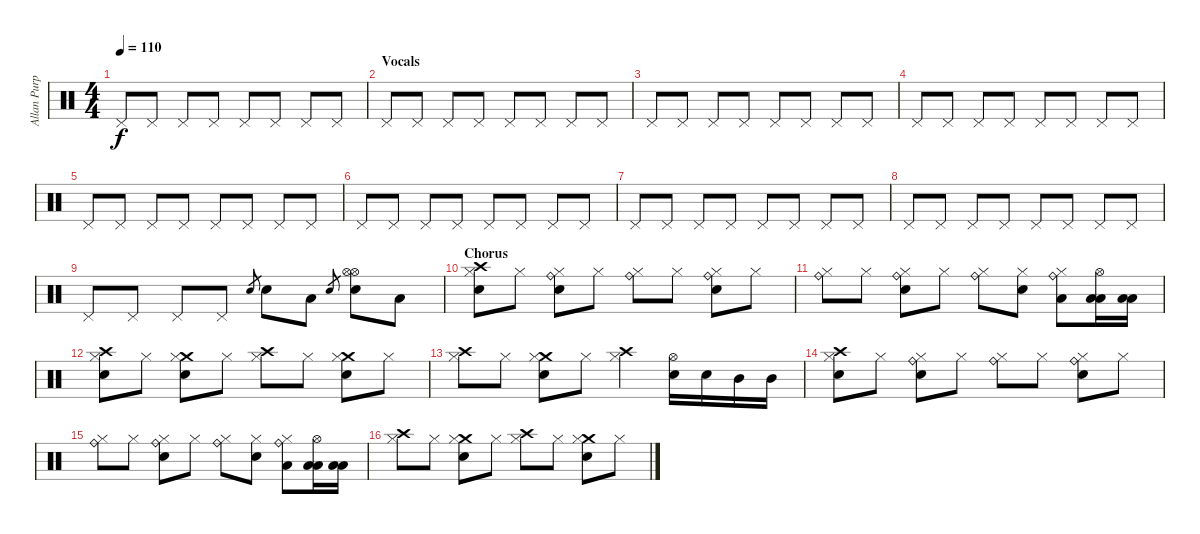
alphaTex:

\track ("Allan Purple" "Allan Purp") {instrument percussion}
\staff {score}
\articulation defaults
\ts (4 4)
\tempo 110
\clef neutral
\ks c "Pedal Hi-Hat (hit)".8{dy f} "Pedal Hi-Hat (hit)".8 "Pedal Hi-Hat (hit)".8 "Pedal Hi-Hat (hit)".8 "Pedal Hi-Hat (hit)".8 "Pedal Hi-Hat (hit)".8 "Pedal Hi-Hat (hit)".8 "Pedal Hi-Hat (hit)".8
|
\section ("" "Vocals")
"Pedal Hi-Hat (hit)".8 "Pedal Hi-Hat (hit)".8 "Pedal Hi-Hat (hit)".8 "Pedal Hi-Hat (hit)".8 "Pedal Hi-Hat (hit)".8 "Pedal Hi-Hat (hit)".8 "Pedal Hi-Hat (hit)".8 "Pedal Hi-Hat (hit)".8 |
"Pedal Hi-Hat (hit)".8 "Pedal Hi-Hat (hit)".8 "Pedal Hi-Hat (hit)".8 "Pedal Hi-Hat (hit)".8 "Pedal Hi-Hat (hit)".8 "Pedal Hi-Hat (hit)".8 "Pedal Hi-Hat (hit)".8 "Pedal Hi-Hat (hit)".8 |
"Pedal Hi-Hat (hit)".8 "Pedal Hi-Hat (hit)".8 "Pedal Hi-Hat (hit)".8 "Pedal Hi-Hat (hit)".8 "Pedal Hi-Hat (hit)".8 "Pedal Hi-Hat (hit)".8 "Pedal Hi-Hat (hit)".8 "Pedal Hi-Hat (hit)".8 |
"Pedal Hi-Hat (hit)".8 "Pedal Hi-Hat (hit)".8 "Pedal Hi-Hat (hit)".8 "Pedal Hi-Hat (hit)".8 "Pedal Hi-Hat (hit)".8 "Pedal Hi-Hat (hit)".8 "Pedal Hi-Hat (hit)".8 "Pedal Hi-Hat (hit)".8 |
"Pedal Hi-Hat (hit)".8 "Pedal Hi-Hat (hit)".8 "Pedal Hi-Hat (hit)".8 "Pedal Hi-Hat (hit)".8 "Pedal Hi-Hat (hit)".8 "Pedal Hi-Hat (hit)".8 "Pedal Hi-Hat (hit)".8 "Pedal Hi-Hat (hit)".8 |
"Pedal Hi-Hat (hit)".8 "Pedal Hi-Hat (hit)".8 "Pedal Hi-Hat (hit)".8 "Pedal Hi-Hat (hit)".8 "Pedal Hi-Hat (hit)".8 "Pedal Hi-Hat (hit)".8 "Pedal Hi-Hat (hit)".8 "Pedal Hi-Hat (hit)".8 |
"Pedal Hi-Hat (hit)".8 "Pedal Hi-Hat (hit)".8 "Pedal Hi-Hat (hit)".8 "Pedal Hi-Hat (hit)".8 "Pedal Hi-Hat (hit)".8 "Pedal Hi-Hat (hit)".8 "Pedal Hi-Hat (hit)".8 "Pedal Hi-Hat (hit)".8 |
"Pedal Hi-Hat (hit)".8 "Pedal Hi-Hat (hit)".8 "Pedal Hi-Hat (hit)".8 "Pedal Hi-Hat (hit)".8 "Electric Snare (hit)".8{gr} "Electric Snare (hit)".8 "Low Tom (hit)".8 "Electric Snare (hit)".8{gr} ("Hi-Hat (open)" "Hi-Hat (open)" "Electric Snare (hit)").8 "Low Tom (hit)".8 |
\section ("" "Chorus")
("Crash high (hit)" "Hi-Hat (closed)" "Snare (hit) 2").8 "Hi-Hat (closed)".8 ("Ride (bell)" "Hi-Hat (closed)" "Electric Snare (hit)").8 "Hi-Hat (closed)".8 ("Ride (bell)" "Hi-Hat (closed)").8 "Hi-Hat (closed)".8 ("Ride (bell)" "Hi-Hat (closed)" "Electric Snare (hit)").8 "Hi-Hat (closed)".8 |
("Ride (bell)" "Hi-Hat (closed)").8 "Hi-Hat (closed)".8 ("Ride (bell)" "Hi-Hat (closed)" "Electric Snare (hit)").8 "Hi-Hat (closed)".8 ("Ride (bell)" "Hi-Hat (closed)").8 ("Hi-Hat (closed)" "Electric Snare (hit)").8 ("Ride (bell)" "Hi-Hat (closed)" "Low Tom (hit)").8 ("Hi-Hat (open)" "Low Tom (hit)" "Low Tom (hit)").16 ("Low Tom (hit)" "Low Tom (hit)").16 |
("Crash high (hit)" "Hi-Hat (closed)" "Snare (hit) 2").8 "Hi-Hat (closed)".8 ("Crash medium (hit)" "Hi-Hat (closed)" "Electric Snare (hit)").8 "Hi-Hat (closed)".8 ("Crash high (hit)" "Hi-Hat (closed)").8 "Hi-Hat (closed)".8 ("Crash medium (hit)" "Hi-Hat (closed)" "Electric Snare (hit)").8 "Hi-Hat (closed)".8 |
("Crash high (hit)" "Hi-Hat (closed)").8 "Hi-Hat (closed)".8 ("Crash medium (hit)" "Hi-Hat (closed)" "Electric Snare (hit)").8 "Hi-Hat (closed)".8 ("Crash high (hit)" "Hi-Hat (closed)").4 ("Hi-Hat (open)" "Electric Snare (hit)").16 "Electric Snare (hit)".16 "Mid Tom (hit)".16 "Mid Tom (hit)".16 |
("Crash high (hit)" "Hi-Hat (closed)" "Snare (hit) 2").8 "Hi-Hat (closed)".8 ("Ride (bell)" "Hi-Hat (closed)" "Electric Snare (hit)").8 "Hi-Hat (closed)".8 ("Ride (bell)" "Hi-Hat (closed)").8 "Hi-Hat (closed)".8 ("Ride (bell)" "Hi-Hat (closed)" "Electric Snare (hit)").8 "Hi-Hat (closed)".8 |
("Ride (bell)" "Hi-Hat (closed)").8 "Hi-Hat (closed)".8 ("Ride (bell)" "Hi-Hat (closed)" "Electric Snare (hit)").8 "Hi-Hat (closed)".8 ("Ride (bell)" "Hi-Hat (closed)").8 ("Hi-Hat (closed)" "Electric Snare (hit)").8 ("Ride (bell)" "Hi-Hat (closed)" "Low Tom (hit)").8 ("Hi-Hat (open)" "Low Tom (hit)" "Low Tom (hit)").16 ("Low Tom (hit)" "Low Tom (hit)").16 |
("Crash high (hit)" "Hi-Hat (closed)").8 "Hi-Hat (closed)".8 ("Crash medium (hit)" "Hi-Hat (closed)" "Electric Snare (hit)").8 "Hi-Hat (closed)".8 ("Crash high (hit)" "Hi-Hat (closed)").8 "Hi-Hat (closed)".8 ("Crash medium (hit)" "Hi-Hat (closed)" "Electric Snare (hit)").8 "Hi-Hat (closed)".8
